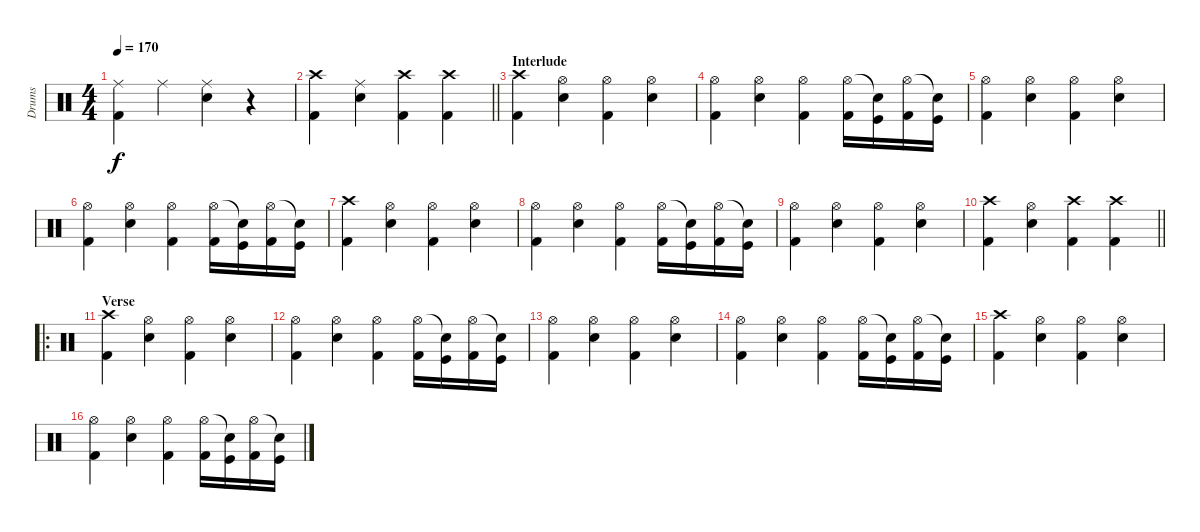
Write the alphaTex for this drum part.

\track ("Drums" "Drums") {instrument percussion}
\staff {score}
\articulation defaults
\ts (4 4)
\tempo 170
\clef neutral
\ks c
("Ride (middle)" "Kick (hit) 2").4{dy f} "Ride (middle)".4 ("Ride (middle)" "Electric Snare (hit)").4 r.4 |
\barLineRight lightlight
("Crash high (hit)" "Kick (hit) 2").4 ("Ride (middle)" "Electric Snare (hit)").4 ("Crash high (hit)" "Kick (hit) 2").4 ("Crash high (hit)" "Kick (hit) 2").4 |
\section ("" "Interlude")
("Crash high (hit)" "Kick (hit) 2").4 ("Hi-Hat (open)" "Electric Snare (hit)").4 ("Hi-Hat (open)" "Kick (hit) 2").4 ("Hi-Hat (open)" "Electric Snare (hit)").4 |
("Hi-Hat (open)" "Kick (hit) 2").4 ("Hi-Hat (open)" "Electric Snare (hit)").4 ("Hi-Hat (open)" "Kick (hit) 2").4 ("Hi-Hat (open)" "Kick (hit) 2").16 ("Snare (hit)"{t} "Kick (hit)").16 ("Hi-Hat (open)" "Kick (hit) 2").16 ("Snare (hit)"{t} "Kick (hit)").16 |
("Hi-Hat (open)" "Kick (hit) 2").4 ("Hi-Hat (open)" "Electric Snare (hit)").4 ("Hi-Hat (open)" "Kick (hit) 2").4 ("Hi-Hat (open)" "Electric Snare (hit)").4 |
("Hi-Hat (open)" "Kick (hit) 2").4 ("Hi-Hat (open)" "Electric Snare (hit)").4 ("Hi-Hat (open)" "Kick (hit) 2").4 ("Hi-Hat (open)" "Kick (hit) 2").16 ("Snare (hit)"{t} "Kick (hit)").16 ("Hi-Hat (open)" "Kick (hit) 2").16 ("Snare (hit)"{t} "Kick (hit)").16 |
("Crash high (hit)" "Kick (hit) 2").4 ("Hi-Hat (open)" "Electric Snare (hit)").4 ("Hi-Hat (open)" "Kick (hit) 2").4 ("Hi-Hat (open)" "Electric Snare (hit)").4 |
("Hi-Hat (open)" "Kick (hit) 2").4 ("Hi-Hat (open)" "Electric Snare (hit)").4 ("Hi-Hat (open)" "Kick (hit) 2").4 ("Hi-Hat (open)" "Kick (hit) 2").16 ("Snare (hit)"{t} "Kick (hit)").16 ("Hi-Hat (open)" "Kick (hit) 2").16 ("Snare (hit)"{t} "Kick (hit)").16 |
("Hi-Hat (open)" "Kick (hit) 2").4 ("Hi-Hat (open)" "Electric Snare (hit)").4 ("Hi-Hat (open)" "Kick (hit) 2").4 ("Hi-Hat (open)" "Electric Snare (hit)").4 |
\barLineRight lightlight
("Crash high (hit)" "Kick (hit) 2").4 ("Hi-Hat (open)" "Electric Snare (hit)").4 ("Crash high (hit)" "Kick (hit) 2").4 ("Crash high (hit)" "Kick (hit) 2").4 |
\ro
\section ("" "Verse")
("Crash high (hit)" "Kick (hit) 2").4 ("Hi-Hat (open)" "Electric Snare (hit)").4 ("Hi-Hat (open)" "Kick (hit) 2").4 ("Hi-Hat (open)" "Electric Snare (hit)").4 |
("Hi-Hat (open)" "Kick (hit) 2").4 ("Hi-Hat (open)" "Electric Snare (hit)").4 ("Hi-Hat (open)" "Kick (hit) 2").4 ("Hi-Hat (open)" "Kick (hit) 2").16 ("Snare (hit)"{t} "Kick (hit)").16 ("Hi-Hat (open)" "Kick (hit) 2").16 ("Snare (hit)"{t} "Kick (hit)").16 |
("Hi-Hat (open)" "Kick (hit) 2").4 ("Hi-Hat (open)" "Electric Snare (hit)").4 ("Hi-Hat (open)" "Kick (hit) 2").4 ("Hi-Hat (open)" "Electric Snare (hit)").4 |
("Hi-Hat (open)" "Kick (hit) 2").4 ("Hi-Hat (open)" "Electric Snare (hit)").4 ("Hi-Hat (open)" "Kick (hit) 2").4 ("Hi-Hat (open)" "Kick (hit) 2").16 ("Snare (hit)"{t} "Kick (hit)").16 ("Hi-Hat (open)" "Kick (hit) 2").16 ("Snare (hit)"{t} "Kick (hit)").16 |
("Crash high (hit)" "Kick (hit) 2").4 ("Hi-Hat (open)" "Electric Snare (hit)").4 ("Hi-Hat (open)" "Kick (hit) 2").4 ("Hi-Hat (open)" "Electric Snare (hit)").4 |
("Hi-Hat (open)" "Kick (hit) 2").4 ("Hi-Hat (open)" "Electric Snare (hit)").4 ("Hi-Hat (open)" "Kick (hit) 2").4 ("Hi-Hat (open)" "Kick (hit) 2").16 ("Snare (hit)"{t} "Kick (hit)").16 ("Hi-Hat (open)" "Kick (hit) 2").16 ("Snare (hit)"{t} "Kick (hit)").16
